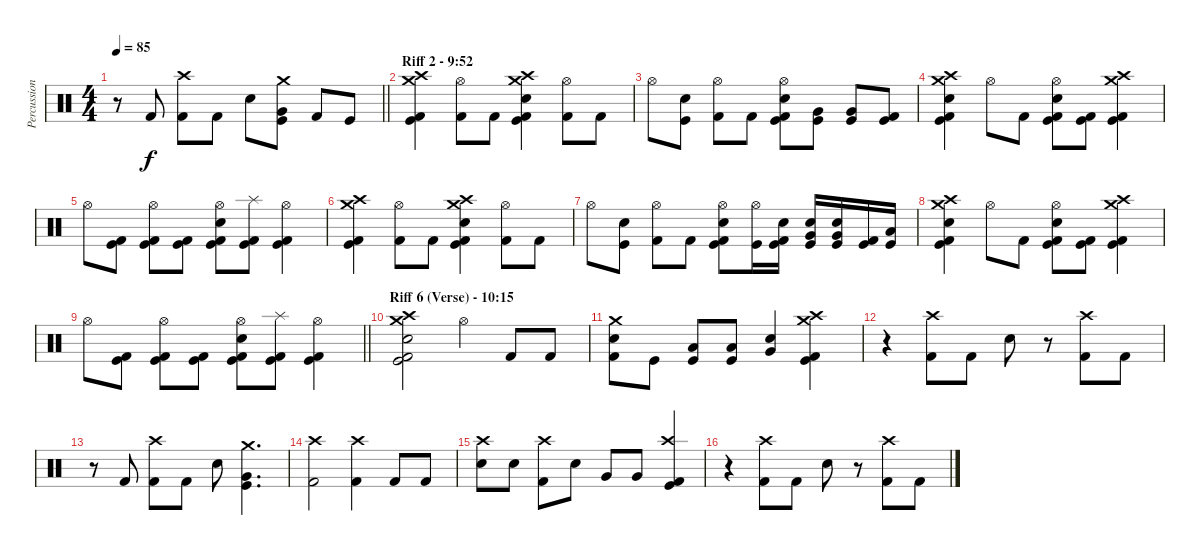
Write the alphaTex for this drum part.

\track ("Percussion" "Percussion") {instrument percussion}
\staff {score}
\articulation defaults
\ts (4 4)
\tempo 85
\clef neutral
\barLineRight lightlight
\ks c
r.8{dy f} "Kick (hit) 2".8 ("Kick (hit) 2" "Crash high (hit)").8 "Kick (hit) 2".8 "Snare (hit) 2".8 ("Kick (hit)" "Very Low Tom (hit)" "Crash medium (hit)").8 "Kick (hit) 2".8 "Kick (hit)".8 |
\section ("" "Riff 2 - 9:52")
("Kick (hit)" "Kick (hit) 2" "Crash high (hit)" "Crash medium (hit)").4 ("Kick (hit) 2" "Hi-Hat (open)").8 "Kick (hit) 2".8 ("Kick (hit)" "Kick (hit) 2" "Snare (hit) 2" "Crash high (hit)" "Crash medium (hit)").4 ("Kick (hit) 2" "Hi-Hat (open)").8 "Kick (hit) 2".8 |
"Hi-Hat (open)".8 ("Kick (hit)" "Snare (hit) 2").8 ("Kick (hit) 2" "Hi-Hat (open)").8 "Kick (hit) 2".8 ("Kick (hit)" "Kick (hit) 2" "Snare (hit) 2" "Hi-Hat (open)").8 ("Kick (hit)" "Very Low Tom (hit)").8 ("Kick (hit)" "Very Low Tom (hit)").8 ("Kick (hit)" "Kick (hit) 2").8 |
("Kick (hit)" "Kick (hit) 2" "Snare (hit) 2" "Crash high (hit)" "Crash medium (hit)").4 "Hi-Hat (open)".8 "Kick (hit) 2".8 ("Kick (hit)" "Kick (hit) 2" "Snare (hit) 2" "Hi-Hat (open)").8 ("Kick (hit)" "Kick (hit) 2").8 ("Kick (hit)" "Kick (hit) 2" "Crash high (hit)" "Crash medium (hit)").4 |
"Hi-Hat (open)".8 ("Kick (hit)" "Kick (hit) 2").8 ("Kick (hit)" "Kick (hit) 2" "Hi-Hat (open)").8 ("Kick (hit)" "Kick (hit) 2").8 ("Kick (hit)" "Kick (hit) 2" "Snare (hit) 2" "Hi-Hat (open)").8 ("Kick (hit)" "Kick (hit) 2" "Splash (hit)").8 ("Kick (hit)" "Kick (hit) 2" "Hi-Hat (open)").4 |
("Kick (hit)" "Kick (hit) 2" "Crash high (hit)" "Crash medium (hit)").4 ("Kick (hit) 2" "Hi-Hat (open)").8 "Kick (hit) 2".8 ("Kick (hit)" "Kick (hit) 2" "Snare (hit) 2" "Crash high (hit)" "Crash medium (hit)").4 ("Kick (hit) 2" "Hi-Hat (open)").8 "Kick (hit) 2".8 |
"Hi-Hat (open)".8 ("Kick (hit)" "Snare (hit) 2").8 ("Kick (hit) 2" "Hi-Hat (open)").8 "Kick (hit) 2".8 ("Kick (hit)" "Kick (hit) 2" "Snare (hit) 2" "Hi-Hat (open)").8 ("Kick (hit)" "Hi-Hat (open)").16 ("Kick (hit)" "Kick (hit) 2" "Snare (hit) 2").16 ("Kick (hit)" "Very Low Tom (hit)" "Snare (hit) 2").16 ("Kick (hit)" "Very Low Tom (hit)" "Snare (hit) 2").16 ("Kick (hit)" "Kick (hit) 2").16 ("Kick (hit)" "Low Floor Tom (hit)").16 |
("Kick (hit)" "Kick (hit) 2" "Snare (hit) 2" "Crash high (hit)" "Crash medium (hit)").4 "Hi-Hat (open)".8 "Kick (hit) 2".8 ("Kick (hit)" "Kick (hit) 2" "Snare (hit) 2" "Hi-Hat (open)").8 ("Kick (hit)" "Kick (hit) 2").8 ("Kick (hit)" "Kick (hit) 2" "Crash high (hit)" "Crash medium (hit)").4 |
\barLineRight lightlight "Hi-Hat (open)".8
("Kick (hit)" "Kick (hit) 2").8 ("Kick (hit)" "Kick (hit) 2" "Hi-Hat (open)").8 ("Kick (hit)" "Kick (hit) 2").8 ("Kick (hit)" "Kick (hit) 2" "Snare (hit) 2" "Hi-Hat (open)").8 ("Kick (hit)" "Kick (hit) 2" "Splash (hit)").8 ("Kick (hit)" "Kick (hit) 2" "Hi-Hat (open)").4 |
\section ("" "Riff 6 (Verse) - 10:15")
("Kick (hit)" "Kick (hit) 2" "Snare (hit) 2" "Crash high (hit)" "Crash medium (hit)").2 "Hi-Hat (open)".4 "Kick (hit) 2".8 "Kick (hit) 2".8 |
("Kick (hit) 2" "Snare (hit) 2" "Crash medium (hit)").8 "Kick (hit)".8 ("Kick (hit)" "Low Floor Tom (hit)").8 ("Kick (hit)" "Low Floor Tom (hit)").8 ("Very Low Tom (hit)" "Snare (hit) 2").4 ("Kick (hit)" "Kick (hit) 2" "Crash high (hit)" "Crash medium (hit)").4 |
r.4 ("Kick (hit) 2" "Crash high (hit)").8 "Kick (hit) 2".8 "Snare (hit) 2".8 r.8 ("Kick (hit) 2" "Crash high (hit)").8 "Kick (hit) 2".8 |
r.8 "Kick (hit) 2".8 ("Kick (hit) 2" "Crash high (hit)").8 "Kick (hit) 2".8 "Snare (hit) 2".8 ("Kick (hit)" "Very Low Tom (hit)" "Crash medium (hit)").4{d} |
("Kick (hit) 2" "Crash high (hit)").2 ("Kick (hit) 2" "Crash high (hit)").4 "Kick (hit) 2".8 "Kick (hit) 2".8 |
("Snare (hit) 2" "Crash high (hit)").8 "Snare (hit) 2".8 ("Kick (hit) 2" "Crash high (hit)").8 "Snare (hit) 2".8 "Very Low Tom (hit)".8 "Very Low Tom (hit)".8 ("Kick (hit)" "Kick (hit) 2" "Crash high (hit)").4 |
r.4 ("Kick (hit) 2" "Crash high (hit)").8 "Kick (hit) 2".8 "Snare (hit) 2".8 r.8 ("Kick (hit) 2" "Crash high (hit)").8 "Kick (hit) 2".8
